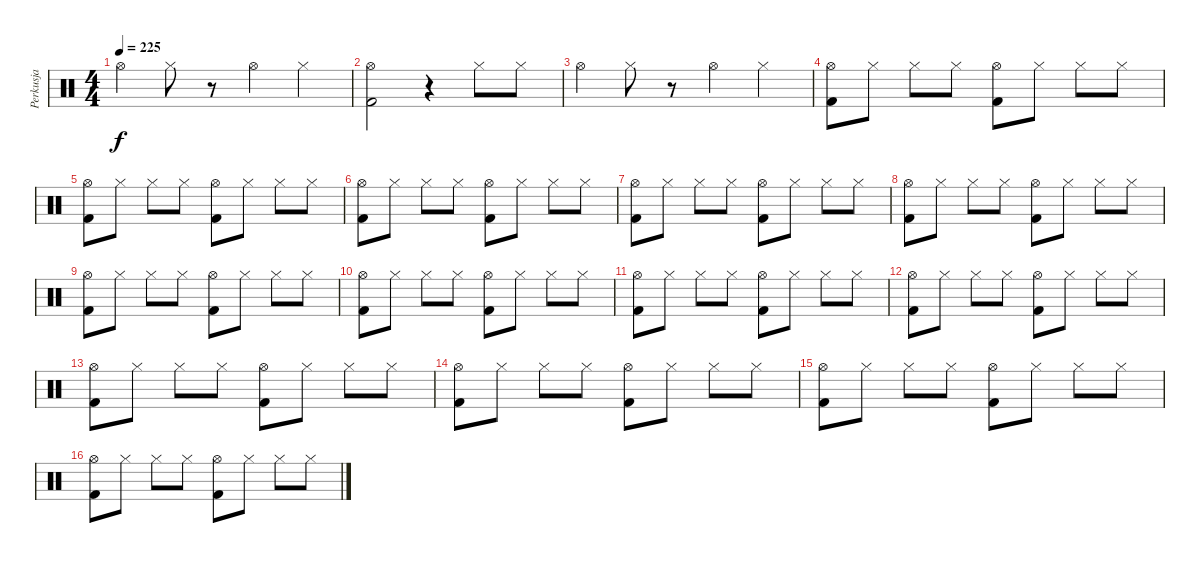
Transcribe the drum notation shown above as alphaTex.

\track ("Perkusja" "Perkusja") {instrument percussion}
\staff {score}
\articulation defaults
\ts (4 4)
\tempo 225
\clef neutral
\ks c "Hi-Hat (open)".4{dy f} "Hi-Hat (closed)".8
r.8 "Hi-Hat (open)".4 "Hi-Hat (closed)".4 |
("Hi-Hat (open)" "Kick (hit) 2").2 r.4 "Hi-Hat (closed)".8 "Hi-Hat (closed)".8 |
"Hi-Hat (open)".4 "Hi-Hat (closed)".8 r.8 "Hi-Hat (open)".4 "Hi-Hat (closed)".4 |
("Hi-Hat (open)" "Kick (hit) 2").8 "Hi-Hat (closed)".8 "Hi-Hat (closed)".8 "Hi-Hat (closed)".8 ("Hi-Hat (open)" "Kick (hit) 2").8 "Hi-Hat (closed)".8 "Hi-Hat (closed)".8 "Hi-Hat (closed)".8 |
("Hi-Hat (open)" "Kick (hit) 2").8 "Hi-Hat (closed)".8 "Hi-Hat (closed)".8 "Hi-Hat (closed)".8 ("Hi-Hat (open)" "Kick (hit) 2").8 "Hi-Hat (closed)".8 "Hi-Hat (closed)".8 "Hi-Hat (closed)".8 |
("Hi-Hat (open)" "Kick (hit) 2").8 "Hi-Hat (closed)".8 "Hi-Hat (closed)".8 "Hi-Hat (closed)".8 ("Hi-Hat (open)" "Kick (hit) 2").8 "Hi-Hat (closed)".8 "Hi-Hat (closed)".8 "Hi-Hat (closed)".8 |
("Hi-Hat (open)" "Kick (hit) 2").8 "Hi-Hat (closed)".8 "Hi-Hat (closed)".8 "Hi-Hat (closed)".8 ("Hi-Hat (open)" "Kick (hit) 2").8 "Hi-Hat (closed)".8 "Hi-Hat (closed)".8 "Hi-Hat (closed)".8 |
("Hi-Hat (open)" "Kick (hit) 2").8 "Hi-Hat (closed)".8 "Hi-Hat (closed)".8 "Hi-Hat (closed)".8 ("Hi-Hat (open)" "Kick (hit) 2").8 "Hi-Hat (closed)".8 "Hi-Hat (closed)".8 "Hi-Hat (closed)".8 |
("Hi-Hat (open)" "Kick (hit) 2").8 "Hi-Hat (closed)".8 "Hi-Hat (closed)".8 "Hi-Hat (closed)".8 ("Hi-Hat (open)" "Kick (hit) 2").8 "Hi-Hat (closed)".8 "Hi-Hat (closed)".8 "Hi-Hat (closed)".8 |
("Hi-Hat (open)" "Kick (hit) 2").8 "Hi-Hat (closed)".8 "Hi-Hat (closed)".8 "Hi-Hat (closed)".8 ("Hi-Hat (open)" "Kick (hit) 2").8 "Hi-Hat (closed)".8 "Hi-Hat (closed)".8 "Hi-Hat (closed)".8 |
("Hi-Hat (open)" "Kick (hit) 2").8 "Hi-Hat (closed)".8 "Hi-Hat (closed)".8 "Hi-Hat (closed)".8 ("Hi-Hat (open)" "Kick (hit) 2").8 "Hi-Hat (closed)".8 "Hi-Hat (closed)".8 "Hi-Hat (closed)".8 |
("Hi-Hat (open)" "Kick (hit) 2").8 "Hi-Hat (closed)".8 "Hi-Hat (closed)".8 "Hi-Hat (closed)".8 ("Hi-Hat (open)" "Kick (hit) 2").8 "Hi-Hat (closed)".8 "Hi-Hat (closed)".8 "Hi-Hat (closed)".8 |
("Hi-Hat (open)" "Kick (hit) 2").8 "Hi-Hat (closed)".8 "Hi-Hat (closed)".8 "Hi-Hat (closed)".8 ("Hi-Hat (open)" "Kick (hit) 2").8 "Hi-Hat (closed)".8 "Hi-Hat (closed)".8 "Hi-Hat (closed)".8 |
("Hi-Hat (open)" "Kick (hit) 2").8 "Hi-Hat (closed)".8 "Hi-Hat (closed)".8 "Hi-Hat (closed)".8 ("Hi-Hat (open)" "Kick (hit) 2").8 "Hi-Hat (closed)".8 "Hi-Hat (closed)".8 "Hi-Hat (closed)".8 |
("Hi-Hat (open)" "Kick (hit) 2").8 "Hi-Hat (closed)".8 "Hi-Hat (closed)".8 "Hi-Hat (closed)".8 ("Hi-Hat (open)" "Kick (hit) 2").8 "Hi-Hat (closed)".8 "Hi-Hat (closed)".8 "Hi-Hat (closed)".8 |
("Hi-Hat (open)" "Kick (hit) 2").8 "Hi-Hat (closed)".8 "Hi-Hat (closed)".8 "Hi-Hat (closed)".8 ("Hi-Hat (open)" "Kick (hit) 2").8 "Hi-Hat (closed)".8 "Hi-Hat (closed)".8 "Hi-Hat (closed)".8
